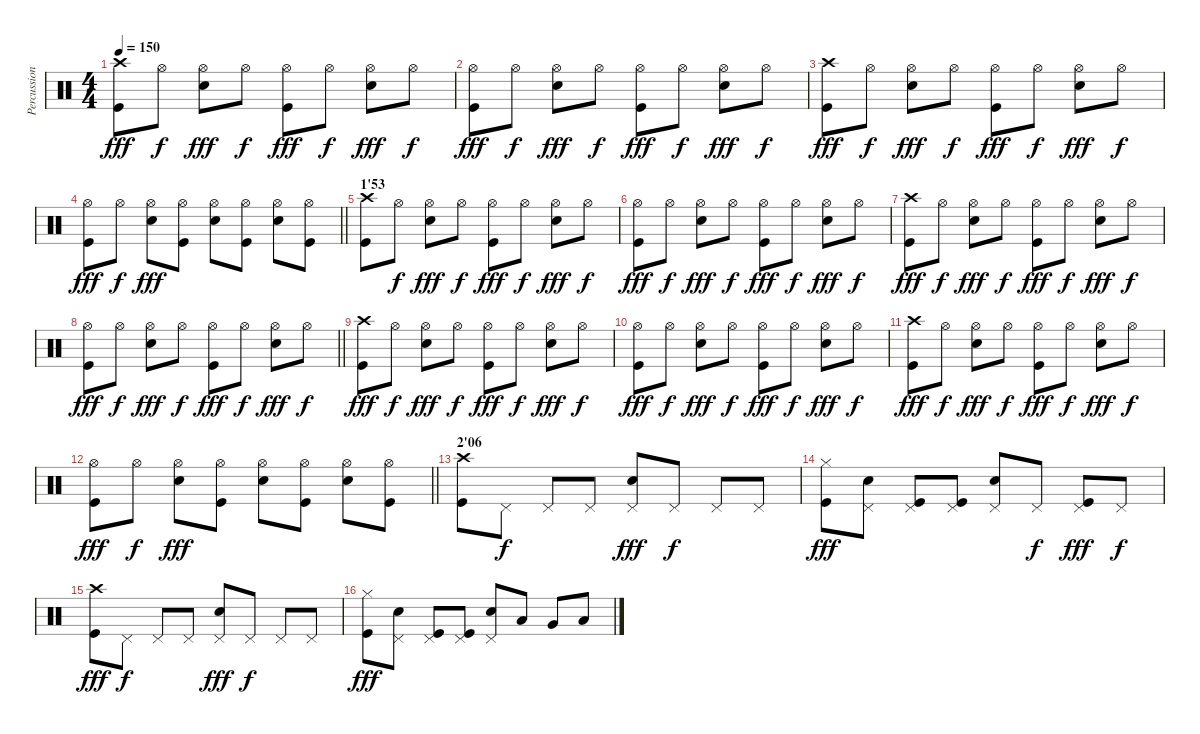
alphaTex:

\track ("Percussions" "Percussion") {instrument percussion}
\staff {score}
\articulation defaults
\ts (4 4)
\tempo 150
\clef neutral
\ks c
("Crash high (hit)" "Kick (hit)").8{dy fff} "Hi-Hat (open)".8{dy f} ("Hi-Hat (open)" "Electric Snare (hit)").8{dy fff} "Hi-Hat (open)".8{dy f} ("Hi-Hat (open)" "Kick (hit)").8{dy fff} "Hi-Hat (open)".8{dy f} ("Hi-Hat (open)" "Electric Snare (hit)").8{dy fff} "Hi-Hat (open)".8{dy f} |
("Hi-Hat (open)" "Kick (hit)").8{dy fff} "Hi-Hat (open)".8{dy f} ("Hi-Hat (open)" "Electric Snare (hit)").8{dy fff} "Hi-Hat (open)".8{dy f} ("Hi-Hat (open)" "Kick (hit)").8{dy fff} "Hi-Hat (open)".8{dy f} ("Hi-Hat (open)" "Electric Snare (hit)").8{dy fff} "Hi-Hat (open)".8{dy f} |
("Crash high (hit)" "Kick (hit)").8{dy fff} "Hi-Hat (open)".8{dy f} ("Hi-Hat (open)" "Electric Snare (hit)").8{dy fff} "Hi-Hat (open)".8{dy f} ("Hi-Hat (open)" "Kick (hit)").8{dy fff} "Hi-Hat (open)".8{dy f} ("Hi-Hat (open)" "Electric Snare (hit)").8{dy fff} "Hi-Hat (open)".8{dy f} |
\barLineRight lightlight
("Hi-Hat (open)" "Kick (hit)").8{dy fff} "Hi-Hat (open)".8{dy f} ("Hi-Hat (open)" "Electric Snare (hit)").8{dy fff} ("Hi-Hat (open)" "Kick (hit)").8 ("Hi-Hat (open)" "Electric Snare (hit)").8 ("Hi-Hat (open)" "Kick (hit)").8 ("Hi-Hat (open)" "Electric Snare (hit)").8 ("Hi-Hat (open)" "Kick (hit)").8 |
\section ("" "1'53")
("Crash high (hit)" "Kick (hit)").8 "Hi-Hat (open)".8{dy f} ("Hi-Hat (open)" "Electric Snare (hit)").8{dy fff} "Hi-Hat (open)".8{dy f} ("Hi-Hat (open)" "Kick (hit)").8{dy fff} "Hi-Hat (open)".8{dy f} ("Hi-Hat (open)" "Electric Snare (hit)").8{dy fff} "Hi-Hat (open)".8{dy f} |
("Hi-Hat (open)" "Kick (hit)").8{dy fff} "Hi-Hat (open)".8{dy f} ("Hi-Hat (open)" "Electric Snare (hit)").8{dy fff} "Hi-Hat (open)".8{dy f} ("Hi-Hat (open)" "Kick (hit)").8{dy fff} "Hi-Hat (open)".8{dy f} ("Hi-Hat (open)" "Electric Snare (hit)").8{dy fff} "Hi-Hat (open)".8{dy f} |
("Crash high (hit)" "Kick (hit)").8{dy fff} "Hi-Hat (open)".8{dy f} ("Hi-Hat (open)" "Electric Snare (hit)").8{dy fff} "Hi-Hat (open)".8{dy f} ("Hi-Hat (open)" "Kick (hit)").8{dy fff} "Hi-Hat (open)".8{dy f} ("Hi-Hat (open)" "Electric Snare (hit)").8{dy fff} "Hi-Hat (open)".8{dy f} |
\barLineRight lightlight
("Hi-Hat (open)" "Kick (hit)").8{dy fff} "Hi-Hat (open)".8{dy f} ("Hi-Hat (open)" "Electric Snare (hit)").8{dy fff} "Hi-Hat (open)".8{dy f} ("Hi-Hat (open)" "Kick (hit)").8{dy fff} "Hi-Hat (open)".8{dy f} ("Hi-Hat (open)" "Electric Snare (hit)").8{dy fff} "Hi-Hat (open)".8{dy f} |
("Crash high (hit)" "Kick (hit)").8{dy fff} "Hi-Hat (open)".8{dy f} ("Hi-Hat (open)" "Electric Snare (hit)").8{dy fff} "Hi-Hat (open)".8{dy f} ("Hi-Hat (open)" "Kick (hit)").8{dy fff} "Hi-Hat (open)".8{dy f} ("Hi-Hat (open)" "Electric Snare (hit)").8{dy fff} "Hi-Hat (open)".8{dy f} |
("Hi-Hat (open)" "Kick (hit)").8{dy fff} "Hi-Hat (open)".8{dy f} ("Hi-Hat (open)" "Electric Snare (hit)").8{dy fff} "Hi-Hat (open)".8{dy f} ("Hi-Hat (open)" "Kick (hit)").8{dy fff} "Hi-Hat (open)".8{dy f} ("Hi-Hat (open)" "Electric Snare (hit)").8{dy fff} "Hi-Hat (open)".8{dy f} |
("Crash high (hit)" "Kick (hit)").8{dy fff} "Hi-Hat (open)".8{dy f} ("Hi-Hat (open)" "Electric Snare (hit)").8{dy fff} "Hi-Hat (open)".8{dy f} ("Hi-Hat (open)" "Kick (hit)").8{dy fff} "Hi-Hat (open)".8{dy f} ("Hi-Hat (open)" "Electric Snare (hit)").8{dy fff} "Hi-Hat (open)".8{dy f} |
\barLineRight lightlight
("Hi-Hat (open)" "Kick (hit)").8{dy fff} "Hi-Hat (open)".8{dy f} ("Hi-Hat (open)" "Electric Snare (hit)").8{dy fff} ("Hi-Hat (open)" "Kick (hit)").8 ("Hi-Hat (open)" "Electric Snare (hit)").8 ("Hi-Hat (open)" "Kick (hit)").8 ("Hi-Hat (open)" "Electric Snare (hit)").8 ("Hi-Hat (open)" "Kick (hit)").8 |
\section ("" "2'06")
("Crash high (hit)" "Kick (hit)").8 "Pedal Hi-Hat (hit)".8{dy f} "Pedal Hi-Hat (hit)".8 "Pedal Hi-Hat (hit)".8 ("Pedal Hi-Hat (hit)" "Electric Snare (hit)").8{dy fff} "Pedal Hi-Hat (hit)".8{dy f} "Pedal Hi-Hat (hit)".8 "Pedal Hi-Hat (hit)".8 |
("Hi-Hat (closed)" "Kick (hit)").8{dy fff} ("Pedal Hi-Hat (hit)" "Electric Snare (hit)").8 ("Pedal Hi-Hat (hit)" "Kick (hit)").8 ("Pedal Hi-Hat (hit)" "Kick (hit)").8 ("Pedal Hi-Hat (hit)" "Electric Snare (hit)").8 "Pedal Hi-Hat (hit)".8{dy f} ("Pedal Hi-Hat (hit)" "Kick (hit)").8{dy fff} "Pedal Hi-Hat (hit)".8{dy f} |
("Crash high (hit)" "Kick (hit)").8{dy fff} "Pedal Hi-Hat (hit)".8{dy f} "Pedal Hi-Hat (hit)".8 "Pedal Hi-Hat (hit)".8 ("Pedal Hi-Hat (hit)" "Electric Snare (hit)").8{dy fff} "Pedal Hi-Hat (hit)".8{dy f} "Pedal Hi-Hat (hit)".8 "Pedal Hi-Hat (hit)".8 |
("Hi-Hat (closed)" "Kick (hit)").8{dy fff} ("Pedal Hi-Hat (hit)" "Electric Snare (hit)").8 ("Pedal Hi-Hat (hit)" "Kick (hit)").8 ("Pedal Hi-Hat (hit)" "Kick (hit)").8 ("Pedal Hi-Hat (hit)" "Electric Snare (hit)").8 "Low Tom (hit)".8 "Very Low Tom (hit)".8 "Low Floor Tom (hit)".8
